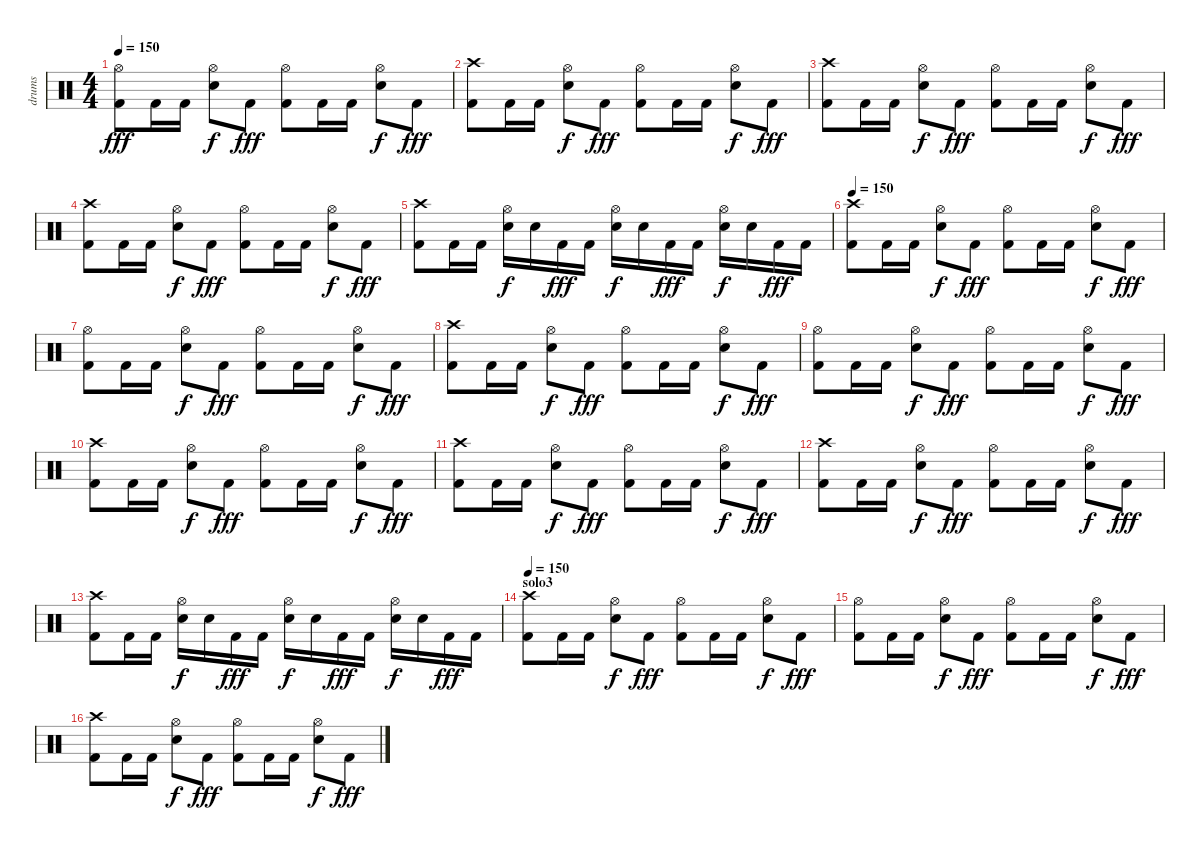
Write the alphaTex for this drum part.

\track ("drums" "drums") {instrument percussion}
\staff {score}
\articulation defaults
\ts (4 4)
\tempo 150
\clef neutral
\ks c
("Hi-Hat (open)" "Kick (hit) 2").8{dy fff} "Kick (hit) 2".16 "Kick (hit) 2".16 ("Hi-Hat (open)" "Snare (hit) 2").8{dy f} "Kick (hit) 2".8{dy fff} ("Hi-Hat (open)" "Kick (hit) 2").8 "Kick (hit) 2".16 "Kick (hit) 2".16 ("Hi-Hat (open)" "Snare (hit) 2").8{dy f} "Kick (hit) 2".8{dy fff} |
("Crash high (hit)" "Kick (hit) 2").8 "Kick (hit) 2".16 "Kick (hit) 2".16 ("Hi-Hat (open)" "Snare (hit) 2").8{dy f} "Kick (hit) 2".8{dy fff} ("Hi-Hat (open)" "Kick (hit) 2").8 "Kick (hit) 2".16 "Kick (hit) 2".16 ("Hi-Hat (open)" "Snare (hit) 2").8{dy f} "Kick (hit) 2".8{dy fff} |
("Crash high (hit)" "Kick (hit) 2").8 "Kick (hit) 2".16 "Kick (hit) 2".16 ("Hi-Hat (open)" "Snare (hit) 2").8{dy f} "Kick (hit) 2".8{dy fff} ("Hi-Hat (open)" "Kick (hit) 2").8 "Kick (hit) 2".16 "Kick (hit) 2".16 ("Hi-Hat (open)" "Snare (hit) 2").8{dy f} "Kick (hit) 2".8{dy fff} |
("Crash high (hit)" "Kick (hit) 2").8 "Kick (hit) 2".16 "Kick (hit) 2".16 ("Hi-Hat (open)" "Snare (hit) 2").8{dy f} "Kick (hit) 2".8{dy fff} ("Hi-Hat (open)" "Kick (hit) 2").8 "Kick (hit) 2".16 "Kick (hit) 2".16 ("Hi-Hat (open)" "Snare (hit) 2").8{dy f} "Kick (hit) 2".8{dy fff} |
("Crash high (hit)" "Kick (hit) 2").8 "Kick (hit) 2".16 "Kick (hit) 2".16 ("Hi-Hat (open)" "Snare (hit) 2").16{dy f} "Snare (hit) 2".16 "Kick (hit) 2".16{dy fff} "Kick (hit) 2".16 ("Hi-Hat (open)" "Snare (hit) 2").16{dy f} "Snare (hit) 2".16 "Kick (hit) 2".16{dy fff} "Kick (hit) 2".16 ("Hi-Hat (open)" "Snare (hit) 2").16{dy f} "Snare (hit) 2".16 "Kick (hit) 2".16{dy fff} "Kick (hit) 2".16 |
\tempo 150
("Crash high (hit)" "Kick (hit) 2").8 "Kick (hit) 2".16 "Kick (hit) 2".16 ("Hi-Hat (open)" "Snare (hit) 2").8{dy f} "Kick (hit) 2".8{dy fff} ("Hi-Hat (open)" "Kick (hit) 2").8 "Kick (hit) 2".16 "Kick (hit) 2".16 ("Hi-Hat (open)" "Snare (hit) 2").8{dy f} "Kick (hit) 2".8{dy fff} |
("Hi-Hat (open)" "Kick (hit) 2").8 "Kick (hit) 2".16 "Kick (hit) 2".16 ("Hi-Hat (open)" "Snare (hit) 2").8{dy f} "Kick (hit) 2".8{dy fff} ("Hi-Hat (open)" "Kick (hit) 2").8 "Kick (hit) 2".16 "Kick (hit) 2".16 ("Hi-Hat (open)" "Snare (hit) 2").8{dy f} "Kick (hit) 2".8{dy fff} |
("Crash high (hit)" "Kick (hit) 2").8 "Kick (hit) 2".16 "Kick (hit) 2".16 ("Hi-Hat (open)" "Snare (hit) 2").8{dy f} "Kick (hit) 2".8{dy fff} ("Hi-Hat (open)" "Kick (hit) 2").8 "Kick (hit) 2".16 "Kick (hit) 2".16 ("Hi-Hat (open)" "Snare (hit) 2").8{dy f} "Kick (hit) 2".8{dy fff} |
("Hi-Hat (open)" "Kick (hit) 2").8 "Kick (hit) 2".16 "Kick (hit) 2".16 ("Hi-Hat (open)" "Snare (hit) 2").8{dy f} "Kick (hit) 2".8{dy fff} ("Hi-Hat (open)" "Kick (hit) 2").8 "Kick (hit) 2".16 "Kick (hit) 2".16 ("Hi-Hat (open)" "Snare (hit) 2").8{dy f} "Kick (hit) 2".8{dy fff} |
("Crash high (hit)" "Kick (hit) 2").8 "Kick (hit) 2".16 "Kick (hit) 2".16 ("Hi-Hat (open)" "Snare (hit) 2").8{dy f} "Kick (hit) 2".8{dy fff} ("Hi-Hat (open)" "Kick (hit) 2").8 "Kick (hit) 2".16 "Kick (hit) 2".16 ("Hi-Hat (open)" "Snare (hit) 2").8{dy f} "Kick (hit) 2".8{dy fff} |
("Crash high (hit)" "Kick (hit) 2").8 "Kick (hit) 2".16 "Kick (hit) 2".16 ("Hi-Hat (open)" "Snare (hit) 2").8{dy f} "Kick (hit) 2".8{dy fff} ("Hi-Hat (open)" "Kick (hit) 2").8 "Kick (hit) 2".16 "Kick (hit) 2".16 ("Hi-Hat (open)" "Snare (hit) 2").8{dy f} "Kick (hit) 2".8{dy fff} |
("Crash high (hit)" "Kick (hit) 2").8 "Kick (hit) 2".16 "Kick (hit) 2".16 ("Hi-Hat (open)" "Snare (hit) 2").8{dy f} "Kick (hit) 2".8{dy fff} ("Hi-Hat (open)" "Kick (hit) 2").8 "Kick (hit) 2".16 "Kick (hit) 2".16 ("Hi-Hat (open)" "Snare (hit) 2").8{dy f} "Kick (hit) 2".8{dy fff} |
("Crash high (hit)" "Kick (hit) 2").8 "Kick (hit) 2".16 "Kick (hit) 2".16 ("Hi-Hat (open)" "Snare (hit) 2").16{dy f} "Snare (hit) 2".16 "Kick (hit) 2".16{dy fff} "Kick (hit) 2".16 ("Hi-Hat (open)" "Snare (hit) 2").16{dy f} "Snare (hit) 2".16 "Kick (hit) 2".16{dy fff} "Kick (hit) 2".16 ("Hi-Hat (open)" "Snare (hit) 2").16{dy f} "Snare (hit) 2".16 "Kick (hit) 2".16{dy fff} "Kick (hit) 2".16 |
\section ("" "solo3")
\tempo 150
("Crash high (hit)" "Kick (hit) 2").8 "Kick (hit) 2".16 "Kick (hit) 2".16 ("Hi-Hat (open)" "Snare (hit) 2").8{dy f} "Kick (hit) 2".8{dy fff} ("Hi-Hat (open)" "Kick (hit) 2").8 "Kick (hit) 2".16 "Kick (hit) 2".16 ("Hi-Hat (open)" "Snare (hit) 2").8{dy f} "Kick (hit) 2".8{dy fff} |
("Hi-Hat (open)" "Kick (hit) 2").8 "Kick (hit) 2".16 "Kick (hit) 2".16 ("Hi-Hat (open)" "Snare (hit) 2").8{dy f} "Kick (hit) 2".8{dy fff} ("Hi-Hat (open)" "Kick (hit) 2").8 "Kick (hit) 2".16 "Kick (hit) 2".16 ("Hi-Hat (open)" "Snare (hit) 2").8{dy f} "Kick (hit) 2".8{dy fff} |
("Crash high (hit)" "Kick (hit) 2").8 "Kick (hit) 2".16 "Kick (hit) 2".16 ("Hi-Hat (open)" "Snare (hit) 2").8{dy f} "Kick (hit) 2".8{dy fff} ("Hi-Hat (open)" "Kick (hit) 2").8 "Kick (hit) 2".16 "Kick (hit) 2".16 ("Hi-Hat (open)" "Snare (hit) 2").8{dy f} "Kick (hit) 2".8{dy fff}
